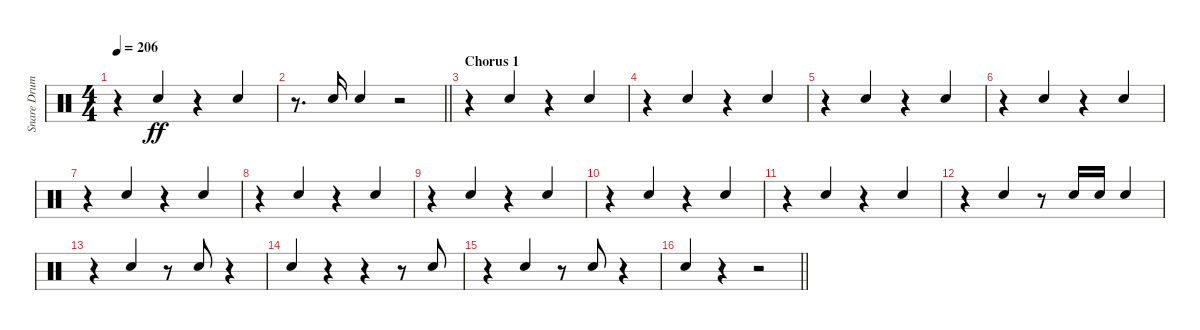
\track ("Snare Drum" "Snare Drum") {instrument percussion}
\staff {score}
\articulation defaults
\ts (4 4)
\tempo 206
\clef neutral
\ks c
r.4{dy ff} "Electric Snare (hit)".4{beam Up} r.4 "Electric Snare (hit)".4{beam Up} |
\barLineRight lightlight
r.8{d} "Electric Snare (hit)".16{beam Up} "Electric Snare (hit)".4{beam Up} r.2 |
\section ("" "Chorus 1")
r.4 "Electric Snare (hit)".4{beam Up} r.4 "Electric Snare (hit)".4{beam Up} |
r.4 "Electric Snare (hit)".4{beam Up} r.4 "Electric Snare (hit)".4{beam Up} |
r.4 "Electric Snare (hit)".4{beam Up} r.4 "Electric Snare (hit)".4{beam Up} |
r.4 "Electric Snare (hit)".4{beam Up} r.4 "Electric Snare (hit)".4{beam Up} |
r.4 "Electric Snare (hit)".4{beam Up} r.4 "Electric Snare (hit)".4{beam Up} |
r.4 "Electric Snare (hit)".4{beam Up} r.4 "Electric Snare (hit)".4{beam Up} |
r.4 "Electric Snare (hit)".4{beam Up} r.4 "Electric Snare (hit)".4{beam Up} |
r.4 "Electric Snare (hit)".4{beam Up} r.4 "Electric Snare (hit)".4{beam Up} |
r.4 "Electric Snare (hit)".4{beam Up} r.4 "Electric Snare (hit)".4{beam Up} |
r.4 "Electric Snare (hit)".4{beam Up} r.8 "Electric Snare (hit)".16{beam Up} "Electric Snare (hit)".16{beam Up} "Electric Snare (hit)".4{beam Up} |
r.4 "Electric Snare (hit)".4{beam Up} r.8 "Electric Snare (hit)".8{beam Up} r.4 |
"Electric Snare (hit)".4{beam Up} r.4 r.4 r.8 "Electric Snare (hit)".8{beam Up} |
r.4 "Electric Snare (hit)".4{beam Up} r.8 "Electric Snare (hit)".8{beam Up} r.4 |
\barLineRight lightlight "Electric Snare (hit)".4{beam Up}
r.4 r.2
